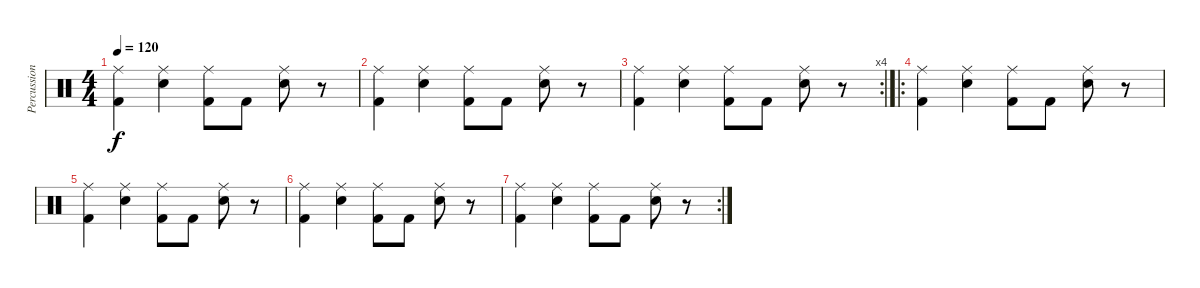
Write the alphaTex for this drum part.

\track ("Percussion" "Percussion") {instrument percussion}
\staff {score}
\articulation defaults
\ts (4 4)
\tempo 120
\clef neutral
\ks c
("Ride (middle)" "Kick (hit) 2").4{dy f} ("Ride (middle)" "Snare (hit) 2").4 ("Ride (middle)" "Kick (hit) 2").8 "Kick (hit) 2".8 ("Ride (middle)" "Snare (hit) 2").8 r.8 |
("Ride (middle)" "Kick (hit) 2").4 ("Ride (middle)" "Snare (hit) 2").4 ("Ride (middle)" "Kick (hit) 2").8 "Kick (hit) 2".8 ("Ride (middle)" "Snare (hit) 2").8 r.8 |
\rc 4
("Ride (middle)" "Kick (hit) 2").4 ("Ride (middle)" "Snare (hit) 2").4 ("Ride (middle)" "Kick (hit) 2").8 "Kick (hit) 2".8 ("Ride (middle)" "Snare (hit) 2").8 r.8 |
\ro
("Ride (middle)" "Kick (hit) 2").4 ("Ride (middle)" "Snare (hit) 2").4 ("Ride (middle)" "Kick (hit) 2").8 "Kick (hit) 2".8 ("Ride (middle)" "Snare (hit) 2").8 r.8 |
("Ride (middle)" "Kick (hit) 2").4 ("Ride (middle)" "Snare (hit) 2").4 ("Ride (middle)" "Kick (hit) 2").8 "Kick (hit) 2".8 ("Ride (middle)" "Snare (hit) 2").8 r.8 |
("Ride (middle)" "Kick (hit) 2").4 ("Ride (middle)" "Snare (hit) 2").4 ("Ride (middle)" "Kick (hit) 2").8 "Kick (hit) 2".8 ("Ride (middle)" "Snare (hit) 2").8 r.8 |
\rc 2
("Ride (middle)" "Kick (hit) 2").4 ("Ride (middle)" "Snare (hit) 2").4 ("Ride (middle)" "Kick (hit) 2").8 "Kick (hit) 2".8 ("Ride (middle)" "Snare (hit) 2").8 r.8
